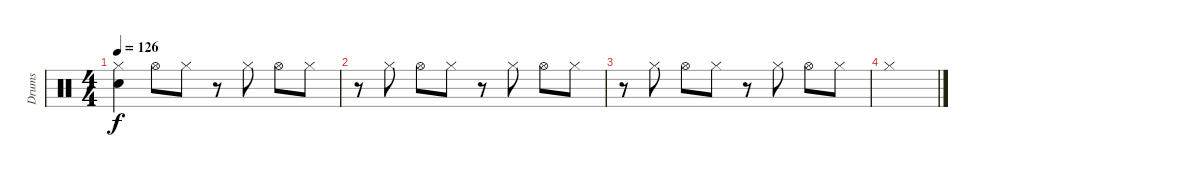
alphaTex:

\track ("Drums" "Drums") {instrument percussion}
\staff {score}
\articulation defaults
\ts (4 4)
\tempo 126
\clef neutral
\ks c
("Hi-Hat (closed)" "Snare (hit) 2").4{dy f} "Hi-Hat (open)".8 "Hi-Hat (closed)".8 r.8 "Hi-Hat (closed)".8 "Hi-Hat (open)".8 "Hi-Hat (closed)".8 |
r.8 "Hi-Hat (closed)".8 "Hi-Hat (open)".8 "Hi-Hat (closed)".8 r.8 "Hi-Hat (closed)".8 "Hi-Hat (open)".8 "Hi-Hat (closed)".8 |
r.8 "Hi-Hat (closed)".8 "Hi-Hat (open)".8 "Hi-Hat (closed)".8 r.8 "Hi-Hat (closed)".8 "Hi-Hat (open)".8 "Hi-Hat (closed)".8 |
"Hi-Hat (closed)".1
